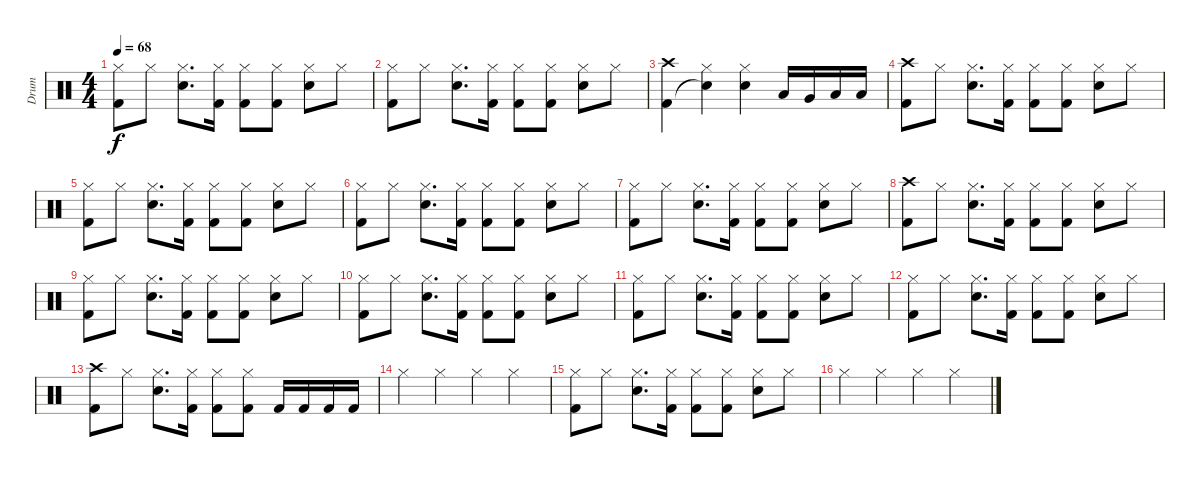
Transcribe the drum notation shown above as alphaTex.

\track ("Drum" "Drum") {instrument percussion}
\staff {score}
\articulation defaults
\ts (4 4)
\tempo 68
\clef neutral
\ks c
("Hi-Hat (closed)" "Kick (hit) 2").8{dy f} "Hi-Hat (closed)".8 ("Hi-Hat (closed)" "Electric Snare (hit)").8{d} ("Hi-Hat (closed)" "Kick (hit) 2").16 ("Hi-Hat (closed)" "Kick (hit) 2").8 ("Hi-Hat (closed)" "Kick (hit) 2").8 ("Hi-Hat (closed)" "Electric Snare (hit)").8 "Hi-Hat (closed)".8 |
("Hi-Hat (closed)" "Kick (hit) 2").8 "Hi-Hat (closed)".8 ("Hi-Hat (closed)" "Electric Snare (hit)").8{d} ("Hi-Hat (closed)" "Kick (hit) 2").16 ("Hi-Hat (closed)" "Kick (hit) 2").8 ("Hi-Hat (closed)" "Kick (hit) 2").8 ("Hi-Hat (closed)" "Electric Snare (hit)").8 "Hi-Hat (closed)".8 |
("Crash high (hit)" "Kick (hit) 2").4 ("Hi-Hat (closed)" "Snare (hit)"{t}).4 ("Hi-Hat (closed)" "Electric Snare (hit)").4 "Low Tom (hit)".16{balance 0} "Very Low Tom (hit)".16{balance 0} "Low Floor Tom (hit)".16{balance 14} "Low Floor Tom (hit)".16{balance 16} |
("Crash high (hit)" "Kick (hit) 2").8{balance 8} "Hi-Hat (closed)".8 ("Hi-Hat (closed)" "Electric Snare (hit)").8{d} ("Hi-Hat (closed)" "Kick (hit) 2").16 ("Hi-Hat (closed)" "Kick (hit) 2").8 ("Hi-Hat (closed)" "Kick (hit) 2").8 ("Hi-Hat (closed)" "Electric Snare (hit)").8 "Hi-Hat (closed)".8 |
("Hi-Hat (closed)" "Kick (hit) 2").8 "Hi-Hat (closed)".8 ("Hi-Hat (closed)" "Electric Snare (hit)").8{d} ("Hi-Hat (closed)" "Kick (hit) 2").16 ("Hi-Hat (closed)" "Kick (hit) 2").8 ("Hi-Hat (closed)" "Kick (hit) 2").8 ("Hi-Hat (closed)" "Electric Snare (hit)").8 "Hi-Hat (closed)".8 |
("Hi-Hat (closed)" "Kick (hit) 2").8 "Hi-Hat (closed)".8 ("Hi-Hat (closed)" "Electric Snare (hit)").8{d} ("Hi-Hat (closed)" "Kick (hit) 2").16 ("Hi-Hat (closed)" "Kick (hit) 2").8 ("Hi-Hat (closed)" "Kick (hit) 2").8 ("Hi-Hat (closed)" "Electric Snare (hit)").8 "Hi-Hat (closed)".8 |
("Hi-Hat (closed)" "Kick (hit) 2").8 "Hi-Hat (closed)".8 ("Hi-Hat (closed)" "Electric Snare (hit)").8{d} ("Hi-Hat (closed)" "Kick (hit) 2").16 ("Hi-Hat (closed)" "Kick (hit) 2").8 ("Hi-Hat (closed)" "Kick (hit) 2").8 ("Hi-Hat (closed)" "Electric Snare (hit)").8 "Hi-Hat (closed)".8 |
("Crash high (hit)" "Kick (hit) 2").8 "Hi-Hat (closed)".8 ("Hi-Hat (closed)" "Electric Snare (hit)").8{d} ("Hi-Hat (closed)" "Kick (hit) 2").16 ("Hi-Hat (closed)" "Kick (hit) 2").8 ("Hi-Hat (closed)" "Kick (hit) 2").8 ("Hi-Hat (closed)" "Electric Snare (hit)").8 "Hi-Hat (closed)".8 |
("Hi-Hat (closed)" "Kick (hit) 2").8 "Hi-Hat (closed)".8 ("Hi-Hat (closed)" "Electric Snare (hit)").8{d} ("Hi-Hat (closed)" "Kick (hit) 2").16 ("Hi-Hat (closed)" "Kick (hit) 2").8 ("Hi-Hat (closed)" "Kick (hit) 2").8 ("Hi-Hat (closed)" "Electric Snare (hit)").8 "Hi-Hat (closed)".8 |
("Hi-Hat (closed)" "Kick (hit) 2").8 "Hi-Hat (closed)".8 ("Hi-Hat (closed)" "Electric Snare (hit)").8{d} ("Hi-Hat (closed)" "Kick (hit) 2").16 ("Hi-Hat (closed)" "Kick (hit) 2").8 ("Hi-Hat (closed)" "Kick (hit) 2").8 ("Hi-Hat (closed)" "Electric Snare (hit)").8 "Hi-Hat (closed)".8 |
("Hi-Hat (closed)" "Kick (hit) 2").8 "Hi-Hat (closed)".8 ("Hi-Hat (closed)" "Electric Snare (hit)").8{d} ("Hi-Hat (closed)" "Kick (hit) 2").16 ("Hi-Hat (closed)" "Kick (hit) 2").8 ("Hi-Hat (closed)" "Kick (hit) 2").8 ("Hi-Hat (closed)" "Electric Snare (hit)").8 "Hi-Hat (closed)".8 |
("Hi-Hat (closed)" "Kick (hit) 2").8 "Hi-Hat (closed)".8 ("Hi-Hat (closed)" "Electric Snare (hit)").8{d} ("Hi-Hat (closed)" "Kick (hit) 2").16 ("Hi-Hat (closed)" "Kick (hit) 2").8 ("Hi-Hat (closed)" "Kick (hit) 2").8 ("Hi-Hat (closed)" "Electric Snare (hit)").8 "Hi-Hat (closed)".8 |
("Crash high (hit)" "Kick (hit) 2").8 "Hi-Hat (closed)".8 ("Hi-Hat (closed)" "Electric Snare (hit)").8{d} ("Hi-Hat (closed)" "Kick (hit) 2").16 ("Hi-Hat (closed)" "Kick (hit) 2").8 ("Hi-Hat (closed)" "Kick (hit) 2").8 "Kick (hit) 2".16 "Kick (hit) 2".16 "Kick (hit) 2".16 "Kick (hit) 2".16 |
"Hi-Hat (closed)".4 "Hi-Hat (closed)".4 "Hi-Hat (closed)".4 "Hi-Hat (closed)".4 |
("Hi-Hat (closed)" "Kick (hit) 2").8 "Hi-Hat (closed)".8 ("Hi-Hat (closed)" "Electric Snare (hit)").8{d} ("Hi-Hat (closed)" "Kick (hit) 2").16 ("Hi-Hat (closed)" "Kick (hit) 2").8 ("Hi-Hat (closed)" "Kick (hit) 2").8 ("Hi-Hat (closed)" "Electric Snare (hit)").8 "Hi-Hat (closed)".8 |
"Hi-Hat (closed)".4 "Hi-Hat (closed)".4 "Hi-Hat (closed)".4 "Hi-Hat (closed)".4
